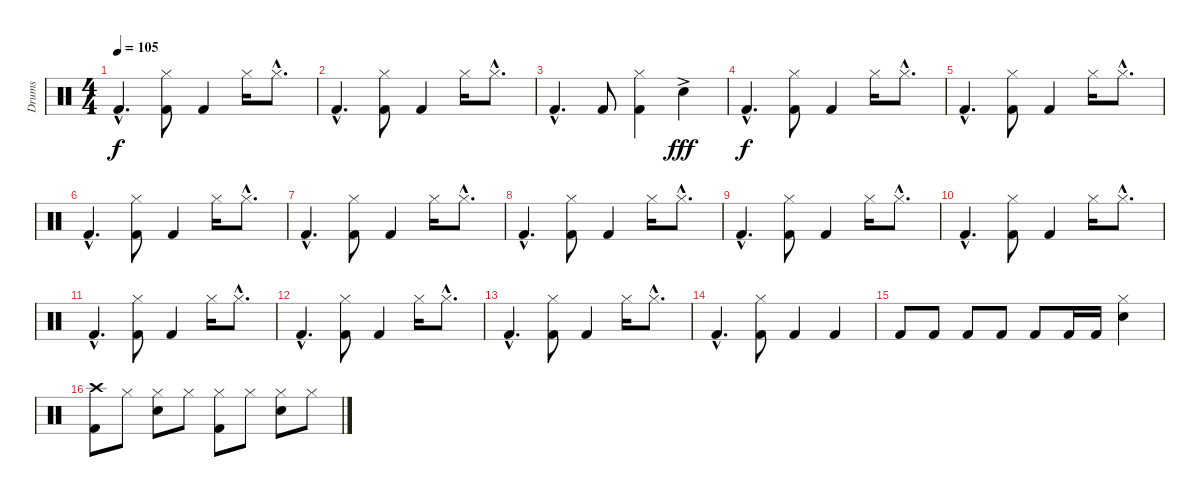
\track ("Drums" "Drums") {instrument percussion}
\staff {score}
\articulation defaults
\ts (4 4)
\tempo 105
\clef neutral
\ks c "Kick (hit) 2"{hac}.4{d dy f}
("Kick (hit) 2" "Hi-Hat (closed)").8 "Kick (hit) 2".4 "Hi-Hat (closed)".16 "Hi-Hat (closed)"{hac}.8{d} |
"Kick (hit) 2"{hac}.4{d} ("Kick (hit) 2" "Hi-Hat (closed)").8 "Kick (hit) 2".4 "Hi-Hat (closed)".16 "Hi-Hat (closed)"{hac}.8{d} |
"Kick (hit) 2"{hac}.4{d} "Kick (hit) 2".8 ("Kick (hit) 2" "Hi-Hat (closed)").4 "Snare (hit) 2"{ac}.4{dy fff} |
"Kick (hit) 2"{hac}.4{d dy f} ("Kick (hit) 2" "Hi-Hat (closed)").8 "Kick (hit) 2".4 "Hi-Hat (closed)".16 "Hi-Hat (closed)"{hac}.8{d} |
"Kick (hit) 2"{hac}.4{d} ("Kick (hit) 2" "Hi-Hat (closed)").8 "Kick (hit) 2".4 "Hi-Hat (closed)".16 "Hi-Hat (closed)"{hac}.8{d} |
"Kick (hit) 2"{hac}.4{d} ("Kick (hit) 2" "Hi-Hat (closed)").8 "Kick (hit) 2".4 "Hi-Hat (closed)".16 "Hi-Hat (closed)"{hac}.8{d} |
"Kick (hit) 2"{hac}.4{d} ("Kick (hit) 2" "Hi-Hat (closed)").8 "Kick (hit) 2".4 "Hi-Hat (closed)".16 "Hi-Hat (closed)"{hac}.8{d} |
"Kick (hit) 2"{hac}.4{d} ("Kick (hit) 2" "Hi-Hat (closed)").8 "Kick (hit) 2".4 "Hi-Hat (closed)".16 "Hi-Hat (closed)"{hac}.8{d} |
"Kick (hit) 2"{hac}.4{d} ("Kick (hit) 2" "Hi-Hat (closed)").8 "Kick (hit) 2".4 "Hi-Hat (closed)".16 "Hi-Hat (closed)"{hac}.8{d} |
"Kick (hit) 2"{hac}.4{d} ("Kick (hit) 2" "Hi-Hat (closed)").8 "Kick (hit) 2".4 "Hi-Hat (closed)".16 "Hi-Hat (closed)"{hac}.8{d} |
"Kick (hit) 2"{hac}.4{d} ("Kick (hit) 2" "Hi-Hat (closed)").8 "Kick (hit) 2".4 "Hi-Hat (closed)".16 "Hi-Hat (closed)"{hac}.8{d} |
"Kick (hit) 2"{hac}.4{d} ("Kick (hit) 2" "Hi-Hat (closed)").8 "Kick (hit) 2".4 "Hi-Hat (closed)".16 "Hi-Hat (closed)"{hac}.8{d} |
"Kick (hit) 2"{hac}.4{d} ("Kick (hit) 2" "Hi-Hat (closed)").8 "Kick (hit) 2".4 "Hi-Hat (closed)".16 "Hi-Hat (closed)"{hac}.8{d} |
"Kick (hit) 2"{hac}.4{d} ("Kick (hit) 2" "Hi-Hat (closed)").8 "Kick (hit) 2".4 "Kick (hit) 2".4 |
"Kick (hit) 2".8 "Kick (hit) 2".8 "Kick (hit) 2".8 "Kick (hit) 2".8 "Kick (hit) 2".8 "Kick (hit) 2".16 "Kick (hit) 2".16 ("Snare (hit) 2" "Hi-Hat (closed)").4 |
("Kick (hit) 2" "Crash high (hit)").8 "Hi-Hat (closed)".8 ("Snare (hit) 2" "Hi-Hat (closed)").8 "Hi-Hat (closed)".8 ("Kick (hit) 2" "Hi-Hat (closed)").8 "Hi-Hat (closed)".8 ("Snare (hit) 2" "Hi-Hat (closed)").8 "Hi-Hat (closed)".8
